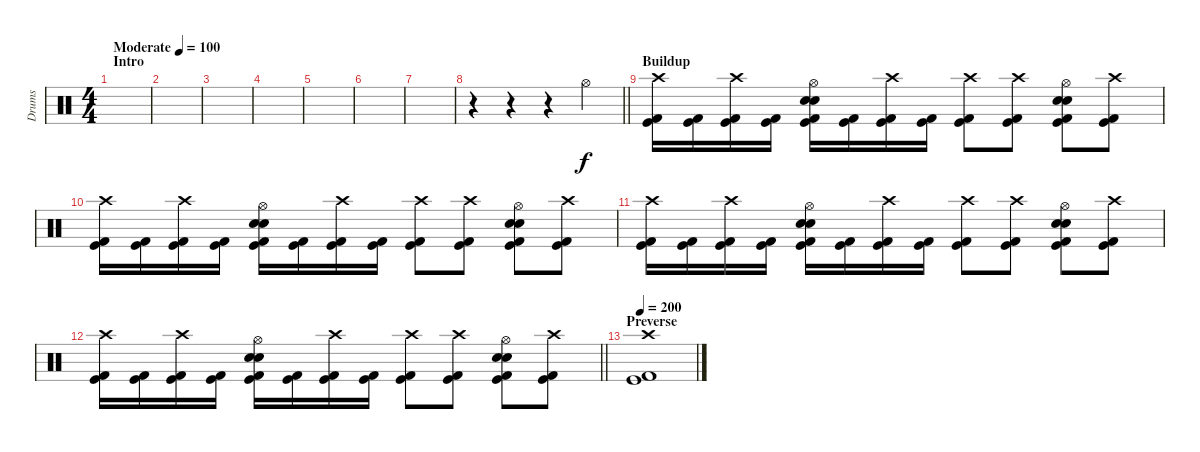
\track ("Drums" "Drums") {instrument percussion}
\staff {score}
\articulation defaults
\ts (4 4)
\section ("" "Intro")
\tempo (100 "Moderate")
\clef neutral
\ks c
|
|
|
|
|
|
|
\barLineRight lightlight
r.4 r.4 r.4 "Hi-Hat (open)".4 |
\section ("" "Buildup")
("Crash high (hit)" "Kick (hit) 2" "Kick (hit)").16 ("Kick (hit) 2" "Kick (hit)").16 ("Crash high (hit)" "Kick (hit) 2" "Kick (hit)").16 ("Kick (hit) 2" "Kick (hit)").16 ("Hi-Hat (open)" "Electric Snare (hit)" "Electric Snare (hit)" "Kick (hit) 2" "Kick (hit)").16 ("Kick (hit) 2" "Kick (hit)").16 ("Crash high (hit)" "Kick (hit) 2" "Kick (hit)").16 ("Kick (hit) 2" "Kick (hit)").16 ("Crash high (hit)" "Kick (hit) 2" "Kick (hit)").8 ("Crash high (hit)" "Kick (hit) 2" "Kick (hit)").8 ("Hi-Hat (open)" "Electric Snare (hit)" "Electric Snare (hit)" "Kick (hit) 2" "Kick (hit)").8 ("Crash high (hit)" "Kick (hit) 2" "Kick (hit)").8 |
("Crash high (hit)" "Kick (hit) 2" "Kick (hit)").16 ("Kick (hit) 2" "Kick (hit)").16 ("Crash high (hit)" "Kick (hit) 2" "Kick (hit)").16 ("Kick (hit) 2" "Kick (hit)").16 ("Hi-Hat (open)" "Electric Snare (hit)" "Electric Snare (hit)" "Kick (hit) 2" "Kick (hit)").16 ("Kick (hit) 2" "Kick (hit)").16 ("Crash high (hit)" "Kick (hit) 2" "Kick (hit)").16 ("Kick (hit) 2" "Kick (hit)").16 ("Crash high (hit)" "Kick (hit) 2" "Kick (hit)").8 ("Crash high (hit)" "Kick (hit) 2" "Kick (hit)").8 ("Hi-Hat (open)" "Electric Snare (hit)" "Electric Snare (hit)" "Kick (hit) 2" "Kick (hit)").8 ("Crash high (hit)" "Kick (hit) 2" "Kick (hit)").8 |
("Crash high (hit)" "Kick (hit) 2" "Kick (hit)").16 ("Kick (hit) 2" "Kick (hit)").16 ("Crash high (hit)" "Kick (hit) 2" "Kick (hit)").16 ("Kick (hit) 2" "Kick (hit)").16 ("Hi-Hat (open)" "Electric Snare (hit)" "Electric Snare (hit)" "Kick (hit) 2" "Kick (hit)").16 ("Kick (hit) 2" "Kick (hit)").16 ("Crash high (hit)" "Kick (hit) 2" "Kick (hit)").16 ("Kick (hit) 2" "Kick (hit)").16 ("Crash high (hit)" "Kick (hit) 2" "Kick (hit)").8 ("Crash high (hit)" "Kick (hit) 2" "Kick (hit)").8 ("Hi-Hat (open)" "Electric Snare (hit)" "Electric Snare (hit)" "Kick (hit) 2" "Kick (hit)").8 ("Crash high (hit)" "Kick (hit) 2" "Kick (hit)").8 |
\barLineRight lightlight
("Crash high (hit)" "Kick (hit) 2" "Kick (hit)").16 ("Kick (hit) 2" "Kick (hit)").16 ("Crash high (hit)" "Kick (hit) 2" "Kick (hit)").16 ("Kick (hit) 2" "Kick (hit)").16 ("Hi-Hat (open)" "Electric Snare (hit)" "Electric Snare (hit)" "Kick (hit) 2" "Kick (hit)").16 ("Kick (hit) 2" "Kick (hit)").16 ("Crash high (hit)" "Kick (hit) 2" "Kick (hit)").16 ("Kick (hit) 2" "Kick (hit)").16 ("Crash high (hit)" "Kick (hit) 2" "Kick (hit)").8 ("Crash high (hit)" "Kick (hit) 2" "Kick (hit)").8 ("Hi-Hat (open)" "Electric Snare (hit)" "Electric Snare (hit)" "Kick (hit) 2" "Kick (hit)").8 ("Crash high (hit)" "Kick (hit) 2" "Kick (hit)").8 |
\section ("" "Preverse")
\tempo 200
("Crash high (hit)" "Kick (hit)" "Kick (hit) 2").1
